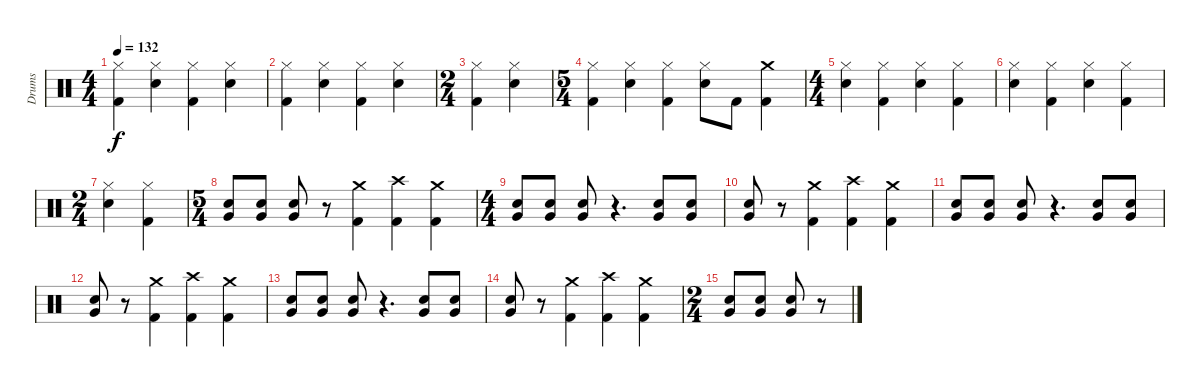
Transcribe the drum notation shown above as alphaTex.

\track ("Drums" "Drums") {instrument percussion}
\staff {score}
\articulation defaults
\ts (4 4)
\tempo 132
\clef neutral
\ks c
("Hi-Hat (closed)" "Kick (hit) 2").4{dy f} ("Hi-Hat (closed)" "Snare (hit) 2").4 ("Hi-Hat (closed)" "Kick (hit) 2").4 ("Hi-Hat (closed)" "Snare (hit) 2").4 |
("Hi-Hat (closed)" "Kick (hit) 2").4 ("Hi-Hat (closed)" "Snare (hit) 2").4 ("Hi-Hat (closed)" "Kick (hit) 2").4 ("Hi-Hat (closed)" "Snare (hit) 2").4 |
\ts (2 4)
("Hi-Hat (closed)" "Kick (hit) 2").4 ("Hi-Hat (closed)" "Snare (hit) 2").4 |
\ts (5 4)
("Hi-Hat (closed)" "Kick (hit) 2").4 ("Hi-Hat (closed)" "Snare (hit) 2").4 ("Hi-Hat (closed)" "Kick (hit) 2").4 ("Hi-Hat (closed)" "Snare (hit) 2").8 "Kick (hit) 2".8 ("Crash medium (hit)" "Kick (hit) 2").4 |
\ts (4 4)
("Hi-Hat (closed)" "Snare (hit) 2").4 ("Hi-Hat (closed)" "Kick (hit) 2").4 ("Hi-Hat (closed)" "Snare (hit) 2").4 ("Hi-Hat (closed)" "Kick (hit) 2").4 |
("Hi-Hat (closed)" "Snare (hit) 2").4 ("Hi-Hat (closed)" "Kick (hit) 2").4 ("Hi-Hat (closed)" "Snare (hit) 2").4 ("Hi-Hat (closed)" "Kick (hit) 2").4 |
\ts (2 4)
("Hi-Hat (closed)" "Snare (hit) 2").4 ("Hi-Hat (closed)" "Kick (hit) 2").4 |
\ts (5 4)
("Snare (hit) 2" "Very Low Tom (hit)").8 ("Snare (hit) 2" "Very Low Tom (hit)").8 ("Snare (hit) 2" "Very Low Tom (hit)").8 r.8 ("Crash medium (hit)" "Kick (hit) 2").4 ("Crash high (hit)" "Kick (hit) 2").4 ("Crash medium (hit)" "Kick (hit) 2").4 |
\ts (4 4)
("Snare (hit) 2" "Very Low Tom (hit)").8 ("Snare (hit) 2" "Very Low Tom (hit)").8 ("Snare (hit) 2" "Very Low Tom (hit)").8 r.4{d} ("Snare (hit) 2" "Very Low Tom (hit)").8 ("Snare (hit) 2" "Very Low Tom (hit)").8 |
("Snare (hit) 2" "Very Low Tom (hit)").8 r.8 ("Crash medium (hit)" "Kick (hit) 2").4 ("Crash high (hit)" "Kick (hit) 2").4 ("Crash medium (hit)" "Kick (hit) 2").4 |
("Snare (hit) 2" "Very Low Tom (hit)").8 ("Snare (hit) 2" "Very Low Tom (hit)").8 ("Snare (hit) 2" "Very Low Tom (hit)").8 r.4{d} ("Snare (hit) 2" "Very Low Tom (hit)").8 ("Snare (hit) 2" "Very Low Tom (hit)").8 |
("Snare (hit) 2" "Very Low Tom (hit)").8 r.8 ("Crash medium (hit)" "Kick (hit) 2").4 ("Crash high (hit)" "Kick (hit) 2").4 ("Crash medium (hit)" "Kick (hit) 2").4 |
("Snare (hit) 2" "Very Low Tom (hit)").8 ("Snare (hit) 2" "Very Low Tom (hit)").8 ("Snare (hit) 2" "Very Low Tom (hit)").8 r.4{d} ("Snare (hit) 2" "Very Low Tom (hit)").8 ("Snare (hit) 2" "Very Low Tom (hit)").8 |
("Snare (hit) 2" "Very Low Tom (hit)").8 r.8 ("Crash medium (hit)" "Kick (hit) 2").4 ("Crash high (hit)" "Kick (hit) 2").4 ("Crash medium (hit)" "Kick (hit) 2").4 |
\ts (2 4)
("Snare (hit) 2" "Very Low Tom (hit)").8 ("Snare (hit) 2" "Very Low Tom (hit)").8 ("Snare (hit) 2" "Very Low Tom (hit)").8 r.8
